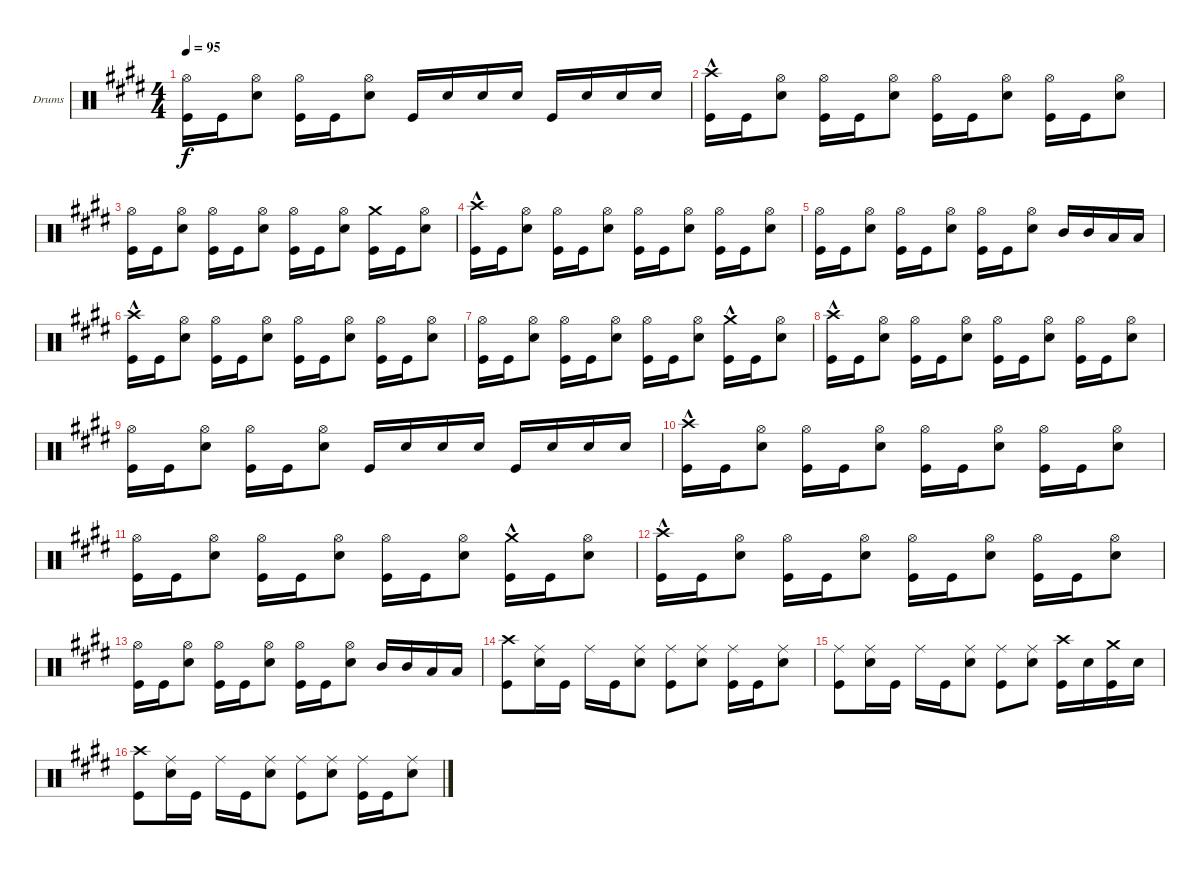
\bracketExtendMode groupsimilarinstruments
\firstSystemTrackNameOrientation horizontal
\otherSystemsTrackNameOrientation horizontal
\track ("Drumkit" "Drums") {instrument percussion}
\staff {score}
\articulation defaults
\ts (4 4)
\tempo 95
\clef neutral
\ks c#minor
("Kick (hit)" "Hi-Hat (open)").16{dy f} "Kick (hit)".16 ("Snare (hit) 2" "Hi-Hat (open)").8 ("Kick (hit)" "Hi-Hat (open)").16 "Kick (hit)".16 ("Snare (hit) 2" "Hi-Hat (open)").8 "Kick (hit)".16 "Snare (hit) 2".16 "Snare (hit) 2".16 "Snare (hit) 2".16 "Kick (hit)".16 "Snare (hit) 2".16 "Snare (hit) 2".16 "Snare (hit) 2".16 |
("Kick (hit)" "Crash high (hit)"{hac}).16 "Kick (hit)".16 ("Snare (hit) 2" "Hi-Hat (open)").8 ("Kick (hit)" "Hi-Hat (open)").16 "Kick (hit)".16 ("Snare (hit) 2" "Hi-Hat (open)").8 ("Kick (hit)" "Hi-Hat (open)").16 "Kick (hit)".16 ("Snare (hit) 2" "Hi-Hat (open)").8 ("Kick (hit)" "Hi-Hat (open)").16 "Kick (hit)".16 ("Snare (hit) 2" "Hi-Hat (open)").8 |
("Kick (hit)" "Hi-Hat (open)").16 "Kick (hit)".16 ("Snare (hit) 2" "Hi-Hat (open)").8 ("Kick (hit)" "Hi-Hat (open)").16 "Kick (hit)".16 ("Snare (hit) 2" "Hi-Hat (open)").8 ("Kick (hit)" "Hi-Hat (open)").16 "Kick (hit)".16 ("Snare (hit) 2" "Hi-Hat (open)").8 ("Kick (hit)" "Crash medium (hit)").16 "Kick (hit)".16 ("Snare (hit) 2" "Hi-Hat (open)").8 |
("Kick (hit)" "Crash high (hit)"{hac}).16 "Kick (hit)".16 ("Snare (hit) 2" "Hi-Hat (open)").8 ("Kick (hit)" "Hi-Hat (open)").16 "Kick (hit)".16 ("Snare (hit) 2" "Hi-Hat (open)").8 ("Kick (hit)" "Hi-Hat (open)").16 "Kick (hit)".16 ("Snare (hit) 2" "Hi-Hat (open)").8 ("Kick (hit)" "Hi-Hat (open)").16 "Kick (hit)".16 ("Snare (hit) 2" "Hi-Hat (open)").8 |
("Kick (hit)" "Hi-Hat (open)").16 "Kick (hit)".16 ("Snare (hit) 2" "Hi-Hat (open)").8 ("Kick (hit)" "Hi-Hat (open)").16 "Kick (hit)".16 ("Snare (hit) 2" "Hi-Hat (open)").8 ("Kick (hit)" "Hi-Hat (open)").16 "Kick (hit)".16 ("Snare (hit) 2" "Hi-Hat (open)").8 "Mid Tom (hit)".16 "Mid Tom (hit)".16 "Low Tom (hit)".16 "Low Tom (hit)".16 |
("Kick (hit)" "Crash high (hit)"{hac}).16 "Kick (hit)".16 ("Snare (hit) 2" "Hi-Hat (open)").8 ("Kick (hit)" "Hi-Hat (open)").16 "Kick (hit)".16 ("Snare (hit) 2" "Hi-Hat (open)").8 ("Kick (hit)" "Hi-Hat (open)").16 "Kick (hit)".16 ("Snare (hit) 2" "Hi-Hat (open)").8 ("Kick (hit)" "Hi-Hat (open)").16 "Kick (hit)".16 ("Snare (hit) 2" "Hi-Hat (open)").8 |
("Kick (hit)" "Hi-Hat (open)").16 "Kick (hit)".16 ("Snare (hit) 2" "Hi-Hat (open)").8 ("Kick (hit)" "Hi-Hat (open)").16 "Kick (hit)".16 ("Snare (hit) 2" "Hi-Hat (open)").8 ("Kick (hit)" "Hi-Hat (open)").16 "Kick (hit)".16 ("Snare (hit) 2" "Hi-Hat (open)").8 ("Kick (hit)" "Crash medium (hit)"{hac}).16 "Kick (hit)".16 ("Snare (hit) 2" "Hi-Hat (open)").8 |
("Kick (hit)" "Crash high (hit)"{hac}).16 "Kick (hit)".16 ("Snare (hit) 2" "Hi-Hat (open)").8 ("Kick (hit)" "Hi-Hat (open)").16 "Kick (hit)".16 ("Snare (hit) 2" "Hi-Hat (open)").8 ("Kick (hit)" "Hi-Hat (open)").16 "Kick (hit)".16 ("Snare (hit) 2" "Hi-Hat (open)").8 ("Kick (hit)" "Hi-Hat (open)").16 "Kick (hit)".16 ("Snare (hit) 2" "Hi-Hat (open)").8 |
("Kick (hit)" "Hi-Hat (open)").16 "Kick (hit)".16 ("Snare (hit) 2" "Hi-Hat (open)").8 ("Kick (hit)" "Hi-Hat (open)").16 "Kick (hit)".16 ("Snare (hit) 2" "Hi-Hat (open)").8 "Kick (hit)".16 "Snare (hit) 2".16 "Snare (hit) 2".16 "Snare (hit) 2".16 "Kick (hit)".16 "Snare (hit) 2".16 "Snare (hit) 2".16 "Snare (hit) 2".16 |
("Kick (hit)" "Crash high (hit)"{hac}).16 "Kick (hit)".16 ("Snare (hit) 2" "Hi-Hat (open)").8 ("Kick (hit)" "Hi-Hat (open)").16 "Kick (hit)".16 ("Snare (hit) 2" "Hi-Hat (open)").8 ("Kick (hit)" "Hi-Hat (open)").16 "Kick (hit)".16 ("Snare (hit) 2" "Hi-Hat (open)").8 ("Kick (hit)" "Hi-Hat (open)").16 "Kick (hit)".16 ("Snare (hit) 2" "Hi-Hat (open)").8 |
("Kick (hit)" "Hi-Hat (open)").16 "Kick (hit)".16 ("Snare (hit) 2" "Hi-Hat (open)").8 ("Kick (hit)" "Hi-Hat (open)").16 "Kick (hit)".16 ("Snare (hit) 2" "Hi-Hat (open)").8 ("Kick (hit)" "Hi-Hat (open)").16 "Kick (hit)".16 ("Snare (hit) 2" "Hi-Hat (open)").8 ("Kick (hit)" "Crash medium (hit)"{hac}).16 "Kick (hit)".16 ("Snare (hit) 2" "Hi-Hat (open)").8 |
("Kick (hit)" "Crash high (hit)"{hac}).16 "Kick (hit)".16 ("Snare (hit) 2" "Hi-Hat (open)").8 ("Kick (hit)" "Hi-Hat (open)").16 "Kick (hit)".16 ("Snare (hit) 2" "Hi-Hat (open)").8 ("Kick (hit)" "Hi-Hat (open)").16 "Kick (hit)".16 ("Snare (hit) 2" "Hi-Hat (open)").8 ("Kick (hit)" "Hi-Hat (open)").16 "Kick (hit)".16 ("Snare (hit) 2" "Hi-Hat (open)").8 |
("Kick (hit)" "Hi-Hat (open)").16 "Kick (hit)".16 ("Snare (hit) 2" "Hi-Hat (open)").8 ("Kick (hit)" "Hi-Hat (open)").16 "Kick (hit)".16 ("Snare (hit) 2" "Hi-Hat (open)").8 ("Kick (hit)" "Hi-Hat (open)").16 "Kick (hit)".16 ("Snare (hit) 2" "Hi-Hat (open)").8 "Mid Tom (hit)".16 "Mid Tom (hit)".16 "Low Tom (hit)".16 "Low Tom (hit)".16 |
("Crash high (hit)" "Kick (hit)").8 ("Snare (hit) 2" "Ride (middle)").16 "Kick (hit)".16 "Ride (middle)".16 "Kick (hit)".16 ("Snare (hit) 2" "Ride (middle)").8 ("Kick (hit)" "Ride (middle)").8 ("Snare (hit) 2" "Ride (middle)").8 ("Kick (hit)" "Ride (middle)").16 "Kick (hit)".16 ("Snare (hit) 2" "Ride (middle)").8 |
("Kick (hit)" "Ride (middle)").8 ("Snare (hit) 2" "Ride (middle)").16 "Kick (hit)".16 "Ride (middle)".16 "Kick (hit)".16 ("Snare (hit) 2" "Ride (middle)").8 ("Kick (hit)" "Ride (middle)").8 ("Snare (hit) 2" "Ride (middle)").8 ("Crash high (hit)" "Kick (hit)").16 "Snare (hit) 2".16 ("Crash medium (hit)" "Kick (hit)").16 "Snare (hit) 2".16 |
("Crash high (hit)" "Kick (hit)").8 ("Snare (hit) 2" "Ride (middle)").16 "Kick (hit)".16 "Ride (middle)".16 "Kick (hit)".16 ("Snare (hit) 2" "Ride (middle)").8 ("Kick (hit)" "Ride (middle)").8 ("Snare (hit) 2" "Ride (middle)").8 ("Kick (hit)" "Ride (middle)").16 "Kick (hit)".16 ("Snare (hit) 2" "Ride (middle)").8
